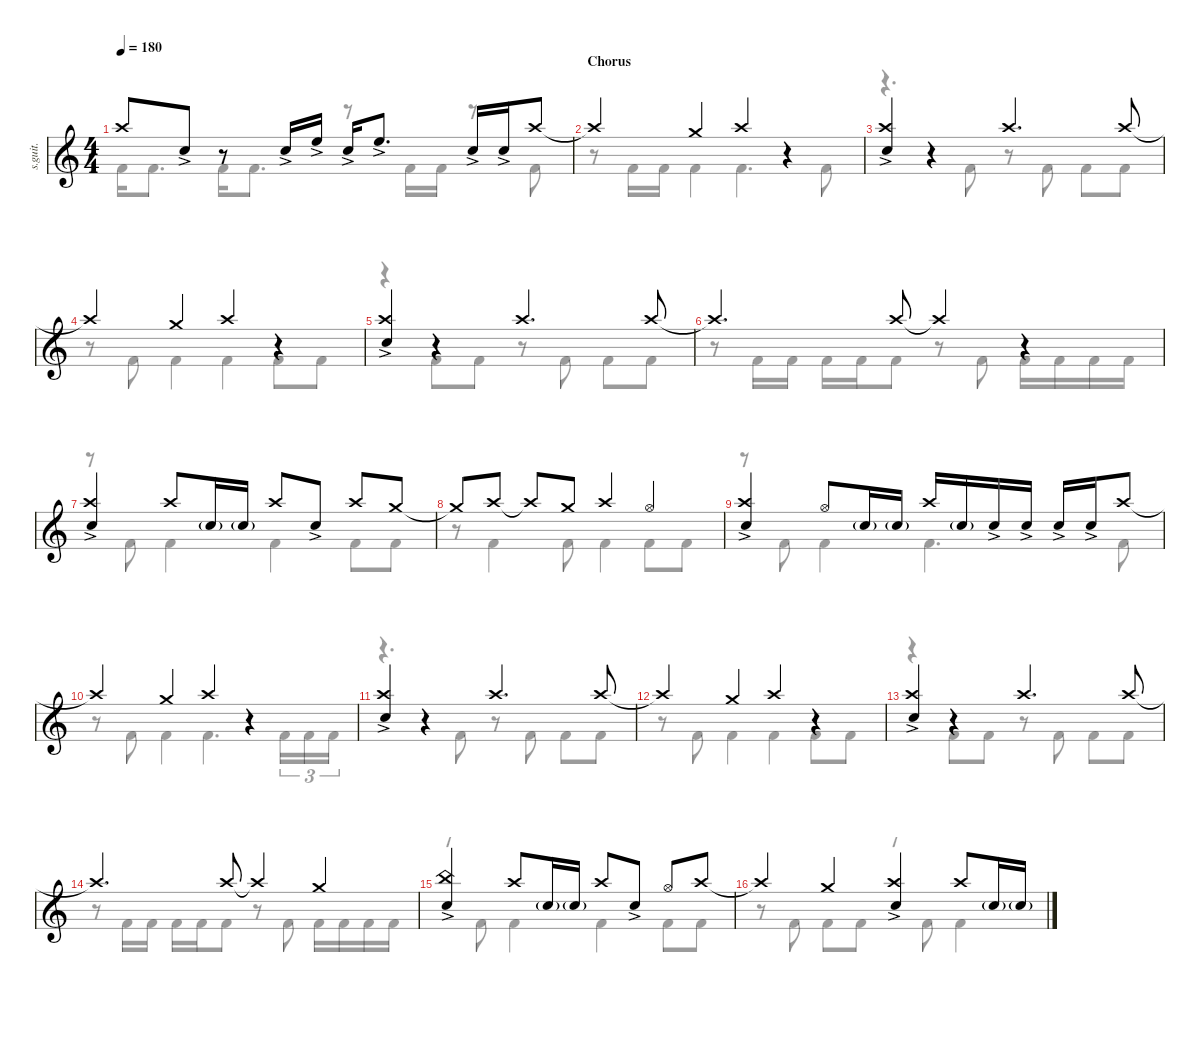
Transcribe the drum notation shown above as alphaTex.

\defaultSystemsLayout 4
\hideDynamics
\bracketExtendMode nobrackets
\track ("Percussion" "s.guit.") {instrument percussion}
\staff {score}
\articulation defaults
\voice
\ts (4 4)
\tempo 180
\clef g2
\ks c "Crash high (hit)".8{lyrics (0 "") lyrics (1 "") lyrics (2 "") lyrics (3 "") lyrics (4 "") dy f} "Snare (hit) 2"{ac}.8{lyrics (0 "") lyrics (1 "") lyrics (2 "") lyrics (3 "") lyrics (4 "")}
r.8 "Snare (hit) 2"{ac}.16{lyrics (0 "") lyrics (1 "") lyrics (2 "") lyrics (3 "") lyrics (4 "")} "High Floor Tom (hit)"{ac}.16{lyrics (0 "") lyrics (1 "") lyrics (2 "") lyrics (3 "") lyrics (4 "")} "Snare (hit) 2"{ac}.16{lyrics (0 "") lyrics (1 "") lyrics (2 "") lyrics (3 "") lyrics (4 "")} "High Floor Tom (hit)"{ac}.8{d lyrics (0 "") lyrics (1 "") lyrics (2 "") lyrics (3 "") lyrics (4 "")} "Snare (hit) 2"{ac}.16{lyrics (0 "") lyrics (1 "") lyrics (2 "") lyrics (3 "") lyrics (4 "")} "Snare (hit) 2"{ac}.16{lyrics (0 "") lyrics (1 "") lyrics (2 "") lyrics (3 "") lyrics (4 "")} "Crash high (hit)".8{lyrics (0 "") lyrics (1 "") lyrics (2 "") lyrics (3 "") lyrics (4 "")} |
\section ("" "Chorus")
"Crash high (hit)"{t}.4{lyrics (0 "") lyrics (1 "") lyrics (2 "") lyrics (3 "") lyrics (4 "")} "Crash medium (hit)".4{lyrics (0 "") lyrics (1 "") lyrics (2 "") lyrics (3 "") lyrics (4 "")} "Crash high (hit)".4{lyrics (0 "") lyrics (1 "") lyrics (2 "") lyrics (3 "") lyrics (4 "")} r.4 |
("Snare (hit) 2"{ac} "Crash high (hit)").4{lyrics (0 "") lyrics (1 "") lyrics (2 "") lyrics (3 "") lyrics (4 "")} r.4 "Crash high (hit)".4{d lyrics (0 "") lyrics (1 "") lyrics (2 "") lyrics (3 "") lyrics (4 "")} "Crash high (hit)".8{lyrics (0 "") lyrics (1 "") lyrics (2 "") lyrics (3 "") lyrics (4 "")} |
"Crash high (hit)"{t}.4{lyrics (0 "") lyrics (1 "") lyrics (2 "") lyrics (3 "") lyrics (4 "")} "Crash medium (hit)".4{lyrics (0 "") lyrics (1 "") lyrics (2 "") lyrics (3 "") lyrics (4 "")} "Crash high (hit)".4{lyrics (0 "") lyrics (1 "") lyrics (2 "") lyrics (3 "") lyrics (4 "")} r.4 |
("Snare (hit) 2"{ac} "Crash high (hit)").4{lyrics (0 "") lyrics (1 "") lyrics (2 "") lyrics (3 "") lyrics (4 "")} r.4 "Crash high (hit)".4{d lyrics (0 "") lyrics (1 "") lyrics (2 "") lyrics (3 "") lyrics (4 "")} "Crash high (hit)".8{lyrics (0 "") lyrics (1 "") lyrics (2 "") lyrics (3 "") lyrics (4 "")} |
"Crash high (hit)"{t}.4{d lyrics (0 "") lyrics (1 "") lyrics (2 "") lyrics (3 "") lyrics (4 "")} "Crash high (hit)".8{lyrics (0 "") lyrics (1 "") lyrics (2 "") lyrics (3 "") lyrics (4 "")} "Crash high (hit)"{t}.4{lyrics (0 "") lyrics (1 "") lyrics (2 "") lyrics (3 "") lyrics (4 "")} r.4 |
("Snare (hit) 2"{ac} "Crash high (hit)").4{lyrics (0 "") lyrics (1 "") lyrics (2 "") lyrics (3 "") lyrics (4 "")} "Crash high (hit)".8{lyrics (0 "") lyrics (1 "") lyrics (2 "") lyrics (3 "") lyrics (4 "")} "Snare (hit) 2"{g}.16{lyrics (0 "") lyrics (1 "") lyrics (2 "") lyrics (3 "") lyrics (4 "")} "Snare (hit) 2"{g}.16{lyrics (0 "") lyrics (1 "") lyrics (2 "") lyrics (3 "") lyrics (4 "")} "Crash high (hit)".8{lyrics (0 "") lyrics (1 "") lyrics (2 "") lyrics (3 "") lyrics (4 "")} "Snare (hit) 2"{ac}.8{lyrics (0 "") lyrics (1 "") lyrics (2 "") lyrics (3 "") lyrics (4 "")} "Crash high (hit)".8{lyrics (0 "") lyrics (1 "") lyrics (2 "") lyrics (3 "") lyrics (4 "")} "Crash medium (hit)".8{lyrics (0 "") lyrics (1 "") lyrics (2 "") lyrics (3 "") lyrics (4 "")} |
"Crash medium (hit)"{t}.8{lyrics (0 "") lyrics (1 "") lyrics (2 "") lyrics (3 "") lyrics (4 "")} "Crash high (hit)".8{lyrics (0 "") lyrics (1 "") lyrics (2 "") lyrics (3 "") lyrics (4 "")} "Crash high (hit)"{t}.8{lyrics (0 "") lyrics (1 "") lyrics (2 "") lyrics (3 "") lyrics (4 "")} "Crash medium (hit)".8{lyrics (0 "") lyrics (1 "") lyrics (2 "") lyrics (3 "") lyrics (4 "")} "Crash high (hit)".4{lyrics (0 "") lyrics (1 "") lyrics (2 "") lyrics (3 "") lyrics (4 "")} "Hi-Hat (open)".4{lyrics (0 "") lyrics (1 "") lyrics (2 "") lyrics (3 "") lyrics (4 "")} |
("Snare (hit) 2"{ac} "Crash high (hit)").4{lyrics (0 "") lyrics (1 "") lyrics (2 "") lyrics (3 "") lyrics (4 "")} "Hi-Hat (open)".8{lyrics (0 "") lyrics (1 "") lyrics (2 "") lyrics (3 "") lyrics (4 "")} "Snare (hit) 2"{g}.16{lyrics (0 "") lyrics (1 "") lyrics (2 "") lyrics (3 "") lyrics (4 "")} "Snare (hit) 2"{g}.16{lyrics (0 "") lyrics (1 "") lyrics (2 "") lyrics (3 "") lyrics (4 "")} "Crash high (hit)".16{lyrics (0 "") lyrics (1 "") lyrics (2 "") lyrics (3 "") lyrics (4 "")} "Snare (hit) 2"{g}.16{lyrics (0 "") lyrics (1 "") lyrics (2 "") lyrics (3 "") lyrics (4 "")} "Snare (hit) 2"{ac}.16{lyrics (0 "") lyrics (1 "") lyrics (2 "") lyrics (3 "") lyrics (4 "")} "Snare (hit) 2"{ac}.16{lyrics (0 "") lyrics (1 "") lyrics (2 "") lyrics (3 "") lyrics (4 "")} "Snare (hit) 2"{ac}.16{lyrics (0 "") lyrics (1 "") lyrics (2 "") lyrics (3 "") lyrics (4 "")} "Snare (hit) 2"{ac}.16{lyrics (0 "") lyrics (1 "") lyrics (2 "") lyrics (3 "") lyrics (4 "")} "Crash high (hit)".8{lyrics (0 "") lyrics (1 "") lyrics (2 "") lyrics (3 "") lyrics (4 "")} |
"Crash high (hit)"{t}.4{lyrics (0 "") lyrics (1 "") lyrics (2 "") lyrics (3 "") lyrics (4 "")} "Crash medium (hit)".4{lyrics (0 "") lyrics (1 "") lyrics (2 "") lyrics (3 "") lyrics (4 "")} "Crash high (hit)".4{lyrics (0 "") lyrics (1 "") lyrics (2 "") lyrics (3 "") lyrics (4 "")} r.4 |
("Snare (hit) 2"{ac} "Crash high (hit)").4{lyrics (0 "") lyrics (1 "") lyrics (2 "") lyrics (3 "") lyrics (4 "")} r.4 "Crash high (hit)".4{d lyrics (0 "") lyrics (1 "") lyrics (2 "") lyrics (3 "") lyrics (4 "")} "Crash high (hit)".8{lyrics (0 "") lyrics (1 "") lyrics (2 "") lyrics (3 "") lyrics (4 "")} |
"Crash high (hit)"{t}.4{lyrics (0 "") lyrics (1 "") lyrics (2 "") lyrics (3 "") lyrics (4 "")} "Crash medium (hit)".4{lyrics (0 "") lyrics (1 "") lyrics (2 "") lyrics (3 "") lyrics (4 "")} "Crash high (hit)".4{lyrics (0 "") lyrics (1 "") lyrics (2 "") lyrics (3 "") lyrics (4 "")} r.4 |
("Snare (hit) 2"{ac} "Crash high (hit)").4{lyrics (0 "") lyrics (1 "") lyrics (2 "") lyrics (3 "") lyrics (4 "")} r.4 "Crash high (hit)".4{d lyrics (0 "") lyrics (1 "") lyrics (2 "") lyrics (3 "") lyrics (4 "")} "Crash high (hit)".8{lyrics (0 "") lyrics (1 "") lyrics (2 "") lyrics (3 "") lyrics (4 "")} |
"Crash high (hit)"{t}.4{d lyrics (0 "") lyrics (1 "") lyrics (2 "") lyrics (3 "") lyrics (4 "")} "Crash high (hit)".8{lyrics (0 "") lyrics (1 "") lyrics (2 "") lyrics (3 "") lyrics (4 "")} "Crash high (hit)"{t}.4{lyrics (0 "") lyrics (1 "") lyrics (2 "") lyrics (3 "") lyrics (4 "")} "Crash medium (hit)".4{lyrics (0 "") lyrics (1 "") lyrics (2 "") lyrics (3 "") lyrics (4 "")} |
("China (hit)" "Snare (hit) 2"{ac}).4{lyrics (0 "") lyrics (1 "") lyrics (2 "") lyrics (3 "") lyrics (4 "")} "Crash high (hit)".8{lyrics (0 "") lyrics (1 "") lyrics (2 "") lyrics (3 "") lyrics (4 "")} "Snare (hit) 2"{g}.16{lyrics (0 "") lyrics (1 "") lyrics (2 "") lyrics (3 "") lyrics (4 "")} "Snare (hit) 2"{g}.16{lyrics (0 "") lyrics (1 "") lyrics (2 "") lyrics (3 "") lyrics (4 "")} "Crash high (hit)".8{lyrics (0 "") lyrics (1 "") lyrics (2 "") lyrics (3 "") lyrics (4 "")} "Snare (hit) 2"{ac}.8{lyrics (0 "") lyrics (1 "") lyrics (2 "") lyrics (3 "") lyrics (4 "")} "Hi-Hat (open)".8{lyrics (0 "") lyrics (1 "") lyrics (2 "") lyrics (3 "") lyrics (4 "")} "Crash high (hit)".8{lyrics (0 "") lyrics (1 "") lyrics (2 "") lyrics (3 "") lyrics (4 "")} |
"Crash high (hit)"{t}.4{lyrics (0 "") lyrics (1 "") lyrics (2 "") lyrics (3 "") lyrics (4 "")} "Crash medium (hit)".4{lyrics (0 "") lyrics (1 "") lyrics (2 "") lyrics (3 "") lyrics (4 "")} ("Crash high (hit)" "Snare (hit) 2"{ac}).4{lyrics (0 "") lyrics (1 "") lyrics (2 "") lyrics (3 "") lyrics (4 "")} "Crash high (hit)".8{lyrics (0 "") lyrics (1 "") lyrics (2 "") lyrics (3 "") lyrics (4 "")} "Snare (hit) 2"{g}.16{lyrics (0 "") lyrics (1 "") lyrics (2 "") lyrics (3 "") lyrics (4 "")} "Snare (hit) 2"{g}.16{lyrics (0 "") lyrics (1 "") lyrics (2 "") lyrics (3 "") lyrics (4 "")}
\voice
\clef g2
\ottava regular
\simile none
\ks c "Kick (hit) 2".16{lyrics (0 "") lyrics (1 "") lyrics (2 "") lyrics (3 "") lyrics (4 "") dy f} "Kick (hit) 2".8{d lyrics (0 "") lyrics (1 "") lyrics (2 "") lyrics (3 "") lyrics (4 "")} "Kick (hit) 2".16{lyrics (0 "") lyrics (1 "") lyrics (2 "") lyrics (3 "") lyrics (4 "")} "Kick (hit) 2".8{d lyrics (0 "") lyrics (1 "") lyrics (2 "") lyrics (3 "") lyrics (4 "")}
r.8 "Kick (hit) 2".16{lyrics (0 "") lyrics (1 "") lyrics (2 "") lyrics (3 "") lyrics (4 "")} "Kick (hit) 2".16{lyrics (0 "") lyrics (1 "") lyrics (2 "") lyrics (3 "") lyrics (4 "")} r.8 "Kick (hit) 2".8{lyrics (0 "") lyrics (1 "") lyrics (2 "") lyrics (3 "") lyrics (4 "")} |
r.8 "Kick (hit) 2".16{lyrics (0 "") lyrics (1 "") lyrics (2 "") lyrics (3 "") lyrics (4 "")} "Kick (hit) 2".16{lyrics (0 "") lyrics (1 "") lyrics (2 "") lyrics (3 "") lyrics (4 "")} "Kick (hit) 2".4{lyrics (0 "") lyrics (1 "") lyrics (2 "") lyrics (3 "") lyrics (4 "")} "Kick (hit) 2".4{d lyrics (0 "") lyrics (1 "") lyrics (2 "") lyrics (3 "") lyrics (4 "")} "Kick (hit) 2".8{lyrics (0 "") lyrics (1 "") lyrics (2 "") lyrics (3 "") lyrics (4 "")} |
r.4{d} "Kick (hit) 2".8{lyrics (0 "") lyrics (1 "") lyrics (2 "") lyrics (3 "") lyrics (4 "")} r.8 "Kick (hit) 2".8{lyrics (0 "") lyrics (1 "") lyrics (2 "") lyrics (3 "") lyrics (4 "")} "Kick (hit) 2".8{lyrics (0 "") lyrics (1 "") lyrics (2 "") lyrics (3 "") lyrics (4 "")} "Kick (hit) 2".8{lyrics (0 "") lyrics (1 "") lyrics (2 "") lyrics (3 "") lyrics (4 "")} |
r.8 "Kick (hit) 2".8{lyrics (0 "") lyrics (1 "") lyrics (2 "") lyrics (3 "") lyrics (4 "")} "Kick (hit) 2".4{lyrics (0 "") lyrics (1 "") lyrics (2 "") lyrics (3 "") lyrics (4 "")} "Kick (hit) 2".4{lyrics (0 "") lyrics (1 "") lyrics (2 "") lyrics (3 "") lyrics (4 "")} "Kick (hit) 2".8{lyrics (0 "") lyrics (1 "") lyrics (2 "") lyrics (3 "") lyrics (4 "")} "Kick (hit) 2".8{lyrics (0 "") lyrics (1 "") lyrics (2 "") lyrics (3 "") lyrics (4 "")} |
r.4 "Kick (hit) 2".8{lyrics (0 "") lyrics (1 "") lyrics (2 "") lyrics (3 "") lyrics (4 "")} "Kick (hit) 2".8{lyrics (0 "") lyrics (1 "") lyrics (2 "") lyrics (3 "") lyrics (4 "")} r.8 "Kick (hit) 2".8{lyrics (0 "") lyrics (1 "") lyrics (2 "") lyrics (3 "") lyrics (4 "")} "Kick (hit) 2".8{lyrics (0 "") lyrics (1 "") lyrics (2 "") lyrics (3 "") lyrics (4 "")} "Kick (hit) 2".8{lyrics (0 "") lyrics (1 "") lyrics (2 "") lyrics (3 "") lyrics (4 "")} |
r.8 "Kick (hit) 2".16{lyrics (0 "") lyrics (1 "") lyrics (2 "") lyrics (3 "") lyrics (4 "")} "Kick (hit) 2".16{lyrics (0 "") lyrics (1 "") lyrics (2 "") lyrics (3 "") lyrics (4 "")} "Kick (hit) 2".16{lyrics (0 "") lyrics (1 "") lyrics (2 "") lyrics (3 "") lyrics (4 "")} "Kick (hit) 2".16{lyrics (0 "") lyrics (1 "") lyrics (2 "") lyrics (3 "") lyrics (4 "")} "Kick (hit) 2".8{lyrics (0 "") lyrics (1 "") lyrics (2 "") lyrics (3 "") lyrics (4 "")} r.8 "Kick (hit) 2".8{lyrics (0 "") lyrics (1 "") lyrics (2 "") lyrics (3 "") lyrics (4 "")} "Kick (hit) 2".16{lyrics (0 "") lyrics (1 "") lyrics (2 "") lyrics (3 "") lyrics (4 "")} "Kick (hit) 2".16{lyrics (0 "") lyrics (1 "") lyrics (2 "") lyrics (3 "") lyrics (4 "")} "Kick (hit) 2".16{lyrics (0 "") lyrics (1 "") lyrics (2 "") lyrics (3 "") lyrics (4 "")} "Kick (hit) 2".16{lyrics (0 "") lyrics (1 "") lyrics (2 "") lyrics (3 "") lyrics (4 "")} |
r.8 "Kick (hit) 2".8{lyrics (0 "") lyrics (1 "") lyrics (2 "") lyrics (3 "") lyrics (4 "")} "Kick (hit) 2".4{lyrics (0 "") lyrics (1 "") lyrics (2 "") lyrics (3 "") lyrics (4 "")} "Kick (hit) 2".4{lyrics (0 "") lyrics (1 "") lyrics (2 "") lyrics (3 "") lyrics (4 "")} "Kick (hit) 2".8{lyrics (0 "") lyrics (1 "") lyrics (2 "") lyrics (3 "") lyrics (4 "")} "Kick (hit) 2".8{lyrics (0 "") lyrics (1 "") lyrics (2 "") lyrics (3 "") lyrics (4 "")} |
r.8 "Kick (hit) 2".4{lyrics (0 "") lyrics (1 "") lyrics (2 "") lyrics (3 "") lyrics (4 "")} "Kick (hit) 2".8{lyrics (0 "") lyrics (1 "") lyrics (2 "") lyrics (3 "") lyrics (4 "")} "Kick (hit) 2".4{lyrics (0 "") lyrics (1 "") lyrics (2 "") lyrics (3 "") lyrics (4 "")} "Kick (hit) 2".8{lyrics (0 "") lyrics (1 "") lyrics (2 "") lyrics (3 "") lyrics (4 "")} "Kick (hit) 2".8{lyrics (0 "") lyrics (1 "") lyrics (2 "") lyrics (3 "") lyrics (4 "")} |
r.8 "Kick (hit) 2".8{lyrics (0 "") lyrics (1 "") lyrics (2 "") lyrics (3 "") lyrics (4 "")} "Kick (hit) 2".4{lyrics (0 "") lyrics (1 "") lyrics (2 "") lyrics (3 "") lyrics (4 "")} "Kick (hit) 2".4{d lyrics (0 "") lyrics (1 "") lyrics (2 "") lyrics (3 "") lyrics (4 "")} "Kick (hit) 2".8{lyrics (0 "") lyrics (1 "") lyrics (2 "") lyrics (3 "") lyrics (4 "")} |
r.8 "Kick (hit) 2".8{lyrics (0 "") lyrics (1 "") lyrics (2 "") lyrics (3 "") lyrics (4 "")} "Kick (hit) 2".4{lyrics (0 "") lyrics (1 "") lyrics (2 "") lyrics (3 "") lyrics (4 "")} "Kick (hit) 2".4{d lyrics (0 "") lyrics (1 "") lyrics (2 "") lyrics (3 "") lyrics (4 "")} "Kick (hit) 2".16{tu (3 2) lyrics (0 "") lyrics (1 "") lyrics (2 "") lyrics (3 "") lyrics (4 "")} "Kick (hit) 2".16{tu (3 2) lyrics (0 "") lyrics (1 "") lyrics (2 "") lyrics (3 "") lyrics (4 "")} "Kick (hit) 2".16{tu (3 2) lyrics (0 "") lyrics (1 "") lyrics (2 "") lyrics (3 "") lyrics (4 "")} |
r.4{d} "Kick (hit) 2".8{lyrics (0 "") lyrics (1 "") lyrics (2 "") lyrics (3 "") lyrics (4 "")} r.8 "Kick (hit) 2".8{lyrics (0 "") lyrics (1 "") lyrics (2 "") lyrics (3 "") lyrics (4 "")} "Kick (hit) 2".8{lyrics (0 "") lyrics (1 "") lyrics (2 "") lyrics (3 "") lyrics (4 "")} "Kick (hit) 2".8{lyrics (0 "") lyrics (1 "") lyrics (2 "") lyrics (3 "") lyrics (4 "")} |
r.8 "Kick (hit) 2".8{lyrics (0 "") lyrics (1 "") lyrics (2 "") lyrics (3 "") lyrics (4 "")} "Kick (hit) 2".4{lyrics (0 "") lyrics (1 "") lyrics (2 "") lyrics (3 "") lyrics (4 "")} "Kick (hit) 2".4{lyrics (0 "") lyrics (1 "") lyrics (2 "") lyrics (3 "") lyrics (4 "")} "Kick (hit) 2".8{lyrics (0 "") lyrics (1 "") lyrics (2 "") lyrics (3 "") lyrics (4 "")} "Kick (hit) 2".8{lyrics (0 "") lyrics (1 "") lyrics (2 "") lyrics (3 "") lyrics (4 "")} |
r.4 "Kick (hit) 2".8{lyrics (0 "") lyrics (1 "") lyrics (2 "") lyrics (3 "") lyrics (4 "")} "Kick (hit) 2".8{lyrics (0 "") lyrics (1 "") lyrics (2 "") lyrics (3 "") lyrics (4 "")} r.8 "Kick (hit) 2".8{lyrics (0 "") lyrics (1 "") lyrics (2 "") lyrics (3 "") lyrics (4 "")} "Kick (hit) 2".8{lyrics (0 "") lyrics (1 "") lyrics (2 "") lyrics (3 "") lyrics (4 "")} "Kick (hit) 2".8{lyrics (0 "") lyrics (1 "") lyrics (2 "") lyrics (3 "") lyrics (4 "")} |
r.8 "Kick (hit) 2".16{lyrics (0 "") lyrics (1 "") lyrics (2 "") lyrics (3 "") lyrics (4 "")} "Kick (hit) 2".16{lyrics (0 "") lyrics (1 "") lyrics (2 "") lyrics (3 "") lyrics (4 "")} "Kick (hit) 2".16{lyrics (0 "") lyrics (1 "") lyrics (2 "") lyrics (3 "") lyrics (4 "")} "Kick (hit) 2".16{lyrics (0 "") lyrics (1 "") lyrics (2 "") lyrics (3 "") lyrics (4 "")} "Kick (hit) 2".8{lyrics (0 "") lyrics (1 "") lyrics (2 "") lyrics (3 "") lyrics (4 "")} r.8 "Kick (hit) 2".8{lyrics (0 "") lyrics (1 "") lyrics (2 "") lyrics (3 "") lyrics (4 "")} "Kick (hit) 2".16{lyrics (0 "") lyrics (1 "") lyrics (2 "") lyrics (3 "") lyrics (4 "")} "Kick (hit) 2".16{lyrics (0 "") lyrics (1 "") lyrics (2 "") lyrics (3 "") lyrics (4 "")} "Kick (hit) 2".16{lyrics (0 "") lyrics (1 "") lyrics (2 "") lyrics (3 "") lyrics (4 "")} "Kick (hit) 2".16{lyrics (0 "") lyrics (1 "") lyrics (2 "") lyrics (3 "") lyrics (4 "")} |
r.8 "Kick (hit) 2".8{lyrics (0 "") lyrics (1 "") lyrics (2 "") lyrics (3 "") lyrics (4 "")} "Kick (hit) 2".4{lyrics (0 "") lyrics (1 "") lyrics (2 "") lyrics (3 "") lyrics (4 "")} "Kick (hit) 2".4{lyrics (0 "") lyrics (1 "") lyrics (2 "") lyrics (3 "") lyrics (4 "")} "Kick (hit) 2".8{lyrics (0 "") lyrics (1 "") lyrics (2 "") lyrics (3 "") lyrics (4 "")} "Kick (hit) 2".8{lyrics (0 "") lyrics (1 "") lyrics (2 "") lyrics (3 "") lyrics (4 "")} |
r.8 "Kick (hit) 2".8{lyrics (0 "") lyrics (1 "") lyrics (2 "") lyrics (3 "") lyrics (4 "")} "Kick (hit) 2".8{lyrics (0 "") lyrics (1 "") lyrics (2 "") lyrics (3 "") lyrics (4 "")} "Kick (hit) 2".8{lyrics (0 "") lyrics (1 "") lyrics (2 "") lyrics (3 "") lyrics (4 "")} r.8 "Kick (hit) 2".8{lyrics (0 "") lyrics (1 "") lyrics (2 "") lyrics (3 "") lyrics (4 "")} "Kick (hit) 2".4{lyrics (0 "") lyrics (1 "") lyrics (2 "") lyrics (3 "") lyrics (4 "")}
